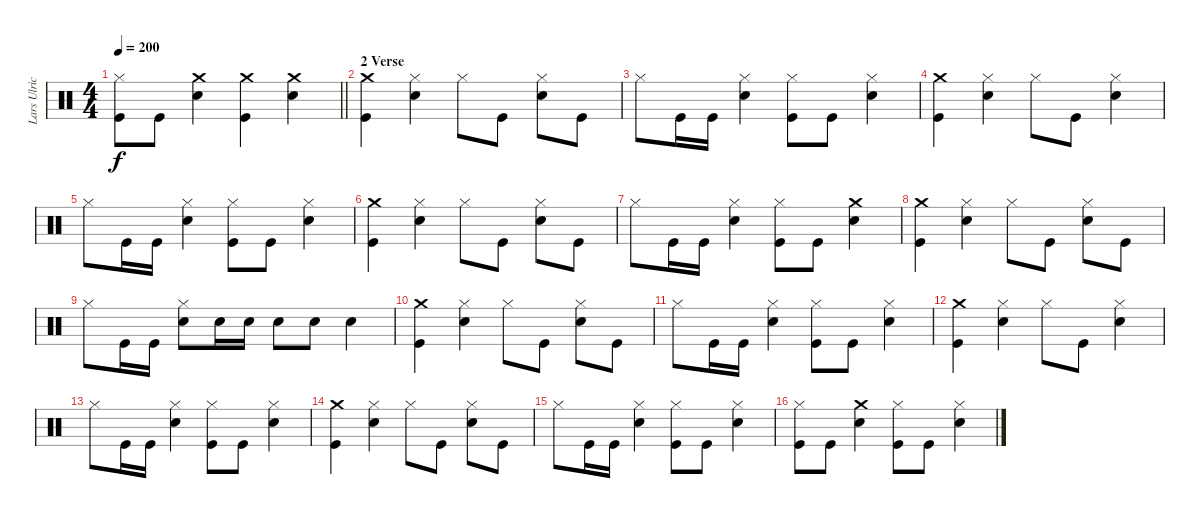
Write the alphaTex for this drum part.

\track ("Lars Ulrich (Drums)" "Lars Ulric") {instrument percussion}
\staff {score}
\articulation defaults
\ts (4 4)
\tempo 200
\clef neutral
\barLineRight lightlight
\ks c
("Kick (hit)" "Hi-Hat (closed)").8{dy f} "Kick (hit)".8 ("Crash medium (hit)" "Snare (hit) 2").4 ("Kick (hit)" "Crash medium (hit)").4 ("Snare (hit) 2" "Crash medium (hit)").4 |
\section ("" "2 Verse")
("Kick (hit)" "Crash medium (hit)").4 ("Snare (hit) 2" "Hi-Hat (closed)").4 "Hi-Hat (closed)".8 "Kick (hit)".8 ("Snare (hit) 2" "Hi-Hat (closed)").8 "Kick (hit)".8 |
"Hi-Hat (closed)".8 "Kick (hit)".16 "Kick (hit)".16 ("Snare (hit) 2" "Hi-Hat (closed)").4 ("Kick (hit)" "Hi-Hat (closed)").8 "Kick (hit)".8 ("Snare (hit) 2" "Hi-Hat (closed)").4 |
("Kick (hit)" "Crash medium (hit)").4 ("Hi-Hat (closed)" "Snare (hit) 2").4 "Hi-Hat (closed)".8 "Kick (hit)".8 ("Snare (hit) 2" "Hi-Hat (closed)").4 |
"Hi-Hat (closed)".8 "Kick (hit)".16 "Kick (hit)".16 ("Snare (hit) 2" "Hi-Hat (closed)").4 ("Kick (hit)" "Hi-Hat (closed)").8 "Kick (hit)".8 ("Hi-Hat (closed)" "Snare (hit) 2").4 |
("Kick (hit)" "Crash medium (hit)").4 ("Hi-Hat (closed)" "Snare (hit) 2").4 "Hi-Hat (closed)".8 "Kick (hit)".8 ("Snare (hit) 2" "Hi-Hat (closed)").8 "Kick (hit)".8 |
"Hi-Hat (closed)".8 "Kick (hit)".16 "Kick (hit)".16 ("Snare (hit) 2" "Hi-Hat (closed)").4 ("Kick (hit)" "Hi-Hat (closed)").8 "Kick (hit)".8 ("Crash medium (hit)" "Snare (hit) 2").4 |
("Kick (hit)" "Crash medium (hit)").4 ("Hi-Hat (closed)" "Snare (hit) 2").4 "Hi-Hat (closed)".8 "Kick (hit)".8 ("Snare (hit) 2" "Hi-Hat (closed)").8 "Kick (hit)".8 |
"Hi-Hat (closed)".8 "Kick (hit)".16 "Kick (hit)".16 ("Snare (hit) 2" "Hi-Hat (closed)").8 "Snare (hit) 2".16 "Snare (hit) 2".16 "Snare (hit) 2".8 "Snare (hit) 2".8 "Snare (hit) 2".4 |
("Kick (hit)" "Crash medium (hit)").4 ("Hi-Hat (closed)" "Snare (hit) 2").4 "Hi-Hat (closed)".8 "Kick (hit)".8 ("Snare (hit) 2" "Hi-Hat (closed)").8 "Kick (hit)".8 |
"Hi-Hat (closed)".8 "Kick (hit)".16 "Kick (hit)".16 ("Snare (hit) 2" "Hi-Hat (closed)").4 ("Kick (hit)" "Hi-Hat (closed)").8 "Kick (hit)".8 ("Snare (hit) 2" "Hi-Hat (closed)").4 |
("Kick (hit)" "Crash medium (hit)").4 ("Hi-Hat (closed)" "Snare (hit) 2").4 "Hi-Hat (closed)".8 "Kick (hit)".8 ("Snare (hit) 2" "Hi-Hat (closed)").4 |
"Hi-Hat (closed)".8 "Kick (hit)".16 "Kick (hit)".16 ("Snare (hit) 2" "Hi-Hat (closed)").4 ("Kick (hit)" "Hi-Hat (closed)").8 "Kick (hit)".8 ("Hi-Hat (closed)" "Snare (hit) 2").4 |
("Kick (hit)" "Crash medium (hit)").4 ("Hi-Hat (closed)" "Snare (hit) 2").4 "Hi-Hat (closed)".8 "Kick (hit)".8 ("Snare (hit) 2" "Hi-Hat (closed)").8 "Kick (hit)".8 |
"Hi-Hat (closed)".8 "Kick (hit)".16 "Kick (hit)".16 ("Snare (hit) 2" "Hi-Hat (closed)").4 ("Kick (hit)" "Hi-Hat (closed)").8 "Kick (hit)".8 ("Snare (hit) 2" "Hi-Hat (closed)").4 |
("Kick (hit)" "Hi-Hat (closed)").8 "Kick (hit)".8 ("Snare (hit) 2" "Crash medium (hit)").4 ("Kick (hit)" "Hi-Hat (closed)").8 "Kick (hit)".8 ("Snare (hit) 2" "Hi-Hat (closed)").4
